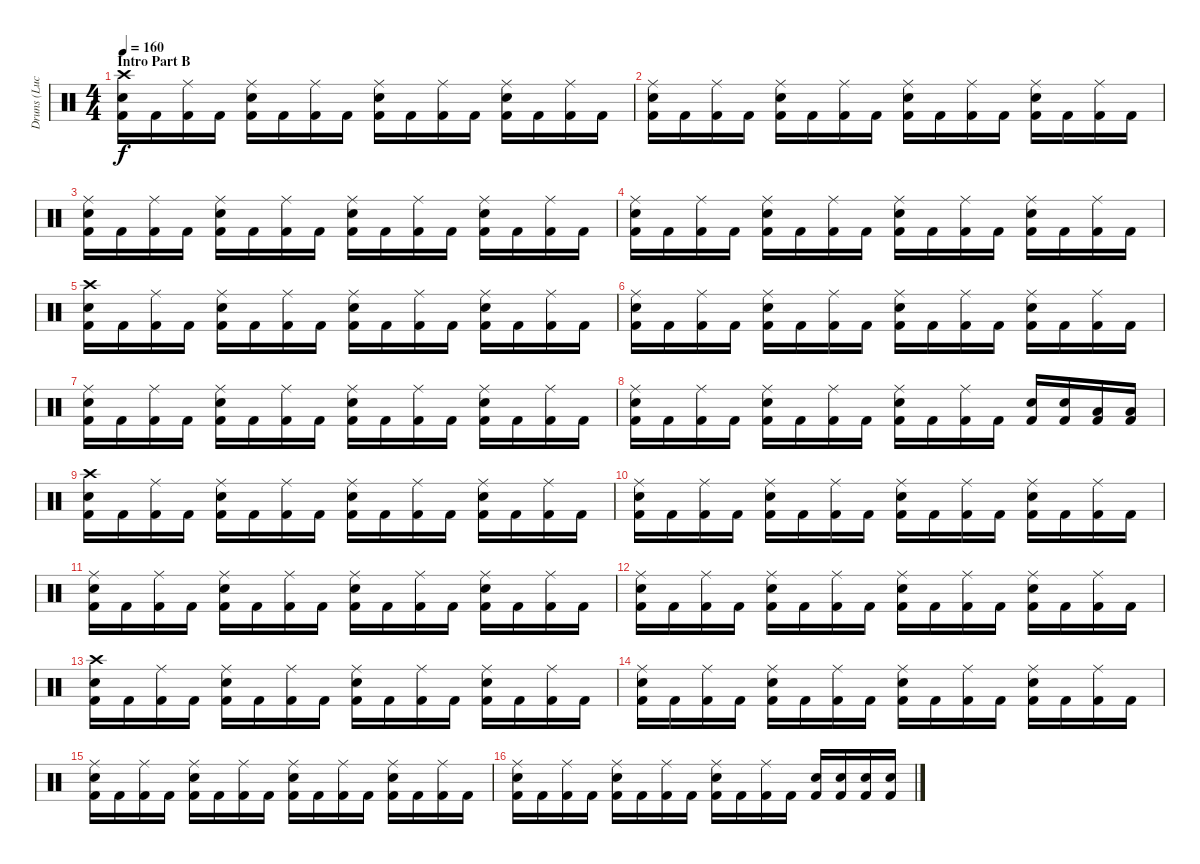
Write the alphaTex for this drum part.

\track ("Druns (Lucas Zigarti)" "Druns (Luc") {instrument percussion}
\staff {score}
\articulation defaults
\ts (4 4)
\section ("" "Intro Part B")
\tempo 160
\clef neutral
\ks c
("Electric Snare (hit)" "Crash high (hit)" "Kick (hit) 2").16{dy f} "Kick (hit) 2".16 ("Ride (middle)" "Kick (hit) 2").16 "Kick (hit) 2".16 ("Electric Snare (hit)" "Ride (middle)" "Kick (hit) 2").16 "Kick (hit) 2".16 ("Ride (middle)" "Kick (hit) 2").16 "Kick (hit) 2".16 ("Electric Snare (hit)" "Ride (middle)" "Kick (hit) 2").16 "Kick (hit) 2".16 ("Ride (middle)" "Kick (hit) 2").16 "Kick (hit) 2".16 ("Electric Snare (hit)" "Ride (middle)" "Kick (hit) 2").16 "Kick (hit) 2".16 ("Ride (middle)" "Kick (hit) 2").16 "Kick (hit) 2".16 |
("Electric Snare (hit)" "Ride (middle)" "Kick (hit) 2").16 "Kick (hit) 2".16 ("Ride (middle)" "Kick (hit) 2").16 "Kick (hit) 2".16 ("Electric Snare (hit)" "Ride (middle)" "Kick (hit) 2").16 "Kick (hit) 2".16 ("Ride (middle)" "Kick (hit) 2").16 "Kick (hit) 2".16 ("Electric Snare (hit)" "Ride (middle)" "Kick (hit) 2").16 "Kick (hit) 2".16 ("Ride (middle)" "Kick (hit) 2").16 "Kick (hit) 2".16 ("Electric Snare (hit)" "Ride (middle)" "Kick (hit) 2").16 "Kick (hit) 2".16 ("Ride (middle)" "Kick (hit) 2").16 "Kick (hit) 2".16 |
("Electric Snare (hit)" "Ride (middle)" "Kick (hit) 2").16 "Kick (hit) 2".16 ("Ride (middle)" "Kick (hit) 2").16 "Kick (hit) 2".16 ("Electric Snare (hit)" "Ride (middle)" "Kick (hit) 2").16 "Kick (hit) 2".16 ("Ride (middle)" "Kick (hit) 2").16 "Kick (hit) 2".16 ("Electric Snare (hit)" "Ride (middle)" "Kick (hit) 2").16 "Kick (hit) 2".16 ("Ride (middle)" "Kick (hit) 2").16 "Kick (hit) 2".16 ("Electric Snare (hit)" "Ride (middle)" "Kick (hit) 2").16 "Kick (hit) 2".16 ("Ride (middle)" "Kick (hit) 2").16 "Kick (hit) 2".16 |
("Electric Snare (hit)" "Ride (middle)" "Kick (hit) 2").16 "Kick (hit) 2".16 ("Ride (middle)" "Kick (hit) 2").16 "Kick (hit) 2".16 ("Electric Snare (hit)" "Ride (middle)" "Kick (hit) 2").16 "Kick (hit) 2".16 ("Ride (middle)" "Kick (hit) 2").16 "Kick (hit) 2".16 ("Electric Snare (hit)" "Ride (middle)" "Kick (hit) 2").16 "Kick (hit) 2".16 ("Ride (middle)" "Kick (hit) 2").16 "Kick (hit) 2".16 ("Electric Snare (hit)" "Ride (middle)" "Kick (hit) 2").16 "Kick (hit) 2".16 ("Ride (middle)" "Kick (hit) 2").16 "Kick (hit) 2".16 |
("Electric Snare (hit)" "Crash high (hit)" "Kick (hit) 2").16 "Kick (hit) 2".16 ("Ride (middle)" "Kick (hit) 2").16 "Kick (hit) 2".16 ("Electric Snare (hit)" "Ride (middle)" "Kick (hit) 2").16 "Kick (hit) 2".16 ("Ride (middle)" "Kick (hit) 2").16 "Kick (hit) 2".16 ("Electric Snare (hit)" "Ride (middle)" "Kick (hit) 2").16 "Kick (hit) 2".16 ("Ride (middle)" "Kick (hit) 2").16 "Kick (hit) 2".16 ("Electric Snare (hit)" "Ride (middle)" "Kick (hit) 2").16 "Kick (hit) 2".16 ("Ride (middle)" "Kick (hit) 2").16 "Kick (hit) 2".16 |
("Electric Snare (hit)" "Ride (middle)" "Kick (hit) 2").16 "Kick (hit) 2".16 ("Ride (middle)" "Kick (hit) 2").16 "Kick (hit) 2".16 ("Electric Snare (hit)" "Ride (middle)" "Kick (hit) 2").16 "Kick (hit) 2".16 ("Ride (middle)" "Kick (hit) 2").16 "Kick (hit) 2".16 ("Electric Snare (hit)" "Ride (middle)" "Kick (hit) 2").16 "Kick (hit) 2".16 ("Ride (middle)" "Kick (hit) 2").16 "Kick (hit) 2".16 ("Electric Snare (hit)" "Ride (middle)" "Kick (hit) 2").16 "Kick (hit) 2".16 ("Ride (middle)" "Kick (hit) 2").16 "Kick (hit) 2".16 |
("Electric Snare (hit)" "Ride (middle)" "Kick (hit) 2").16 "Kick (hit) 2".16 ("Ride (middle)" "Kick (hit) 2").16 "Kick (hit) 2".16 ("Electric Snare (hit)" "Ride (middle)" "Kick (hit) 2").16 "Kick (hit) 2".16 ("Ride (middle)" "Kick (hit) 2").16 "Kick (hit) 2".16 ("Electric Snare (hit)" "Ride (middle)" "Kick (hit) 2").16 "Kick (hit) 2".16 ("Ride (middle)" "Kick (hit) 2").16 "Kick (hit) 2".16 ("Electric Snare (hit)" "Ride (middle)" "Kick (hit) 2").16 "Kick (hit) 2".16 ("Ride (middle)" "Kick (hit) 2").16 "Kick (hit) 2".16 |
("Electric Snare (hit)" "Ride (middle)" "Kick (hit) 2").16 "Kick (hit) 2".16 ("Ride (middle)" "Kick (hit) 2").16 "Kick (hit) 2".16 ("Electric Snare (hit)" "Ride (middle)" "Kick (hit) 2").16 "Kick (hit) 2".16 ("Ride (middle)" "Kick (hit) 2").16 "Kick (hit) 2".16 ("Electric Snare (hit)" "Ride (middle)" "Kick (hit) 2").16 "Kick (hit) 2".16 ("Ride (middle)" "Kick (hit) 2").16 "Kick (hit) 2".16 ("Electric Snare (hit)" "Kick (hit) 2").16 ("Electric Snare (hit)" "Kick (hit) 2").16 ("Low Floor Tom (hit)" "Kick (hit) 2").16 ("Low Floor Tom (hit)" "Kick (hit) 2").16 |
("Electric Snare (hit)" "Crash high (hit)" "Kick (hit) 2").16 "Kick (hit) 2".16 ("Ride (middle)" "Kick (hit) 2").16 "Kick (hit) 2".16 ("Electric Snare (hit)" "Ride (middle)" "Kick (hit) 2").16 "Kick (hit) 2".16 ("Ride (middle)" "Kick (hit) 2").16 "Kick (hit) 2".16 ("Electric Snare (hit)" "Ride (middle)" "Kick (hit) 2").16 "Kick (hit) 2".16 ("Ride (middle)" "Kick (hit) 2").16 "Kick (hit) 2".16 ("Electric Snare (hit)" "Ride (middle)" "Kick (hit) 2").16 "Kick (hit) 2".16 ("Ride (middle)" "Kick (hit) 2").16 "Kick (hit) 2".16 |
("Electric Snare (hit)" "Ride (middle)" "Kick (hit) 2").16 "Kick (hit) 2".16 ("Ride (middle)" "Kick (hit) 2").16 "Kick (hit) 2".16 ("Electric Snare (hit)" "Ride (middle)" "Kick (hit) 2").16 "Kick (hit) 2".16 ("Ride (middle)" "Kick (hit) 2").16 "Kick (hit) 2".16 ("Electric Snare (hit)" "Ride (middle)" "Kick (hit) 2").16 "Kick (hit) 2".16 ("Ride (middle)" "Kick (hit) 2").16 "Kick (hit) 2".16 ("Electric Snare (hit)" "Ride (middle)" "Kick (hit) 2").16 "Kick (hit) 2".16 ("Ride (middle)" "Kick (hit) 2").16 "Kick (hit) 2".16 |
("Electric Snare (hit)" "Ride (middle)" "Kick (hit) 2").16 "Kick (hit) 2".16 ("Ride (middle)" "Kick (hit) 2").16 "Kick (hit) 2".16 ("Electric Snare (hit)" "Ride (middle)" "Kick (hit) 2").16 "Kick (hit) 2".16 ("Ride (middle)" "Kick (hit) 2").16 "Kick (hit) 2".16 ("Electric Snare (hit)" "Ride (middle)" "Kick (hit) 2").16 "Kick (hit) 2".16 ("Ride (middle)" "Kick (hit) 2").16 "Kick (hit) 2".16 ("Electric Snare (hit)" "Ride (middle)" "Kick (hit) 2").16 "Kick (hit) 2".16 ("Ride (middle)" "Kick (hit) 2").16 "Kick (hit) 2".16 |
("Electric Snare (hit)" "Ride (middle)" "Kick (hit) 2").16 "Kick (hit) 2".16 ("Ride (middle)" "Kick (hit) 2").16 "Kick (hit) 2".16 ("Electric Snare (hit)" "Ride (middle)" "Kick (hit) 2").16 "Kick (hit) 2".16 ("Ride (middle)" "Kick (hit) 2").16 "Kick (hit) 2".16 ("Electric Snare (hit)" "Ride (middle)" "Kick (hit) 2").16 "Kick (hit) 2".16 ("Ride (middle)" "Kick (hit) 2").16 "Kick (hit) 2".16 ("Electric Snare (hit)" "Ride (middle)" "Kick (hit) 2").16 "Kick (hit) 2".16 ("Ride (middle)" "Kick (hit) 2").16 "Kick (hit) 2".16 |
("Electric Snare (hit)" "Crash high (hit)" "Kick (hit) 2").16 "Kick (hit) 2".16 ("Ride (middle)" "Kick (hit) 2").16 "Kick (hit) 2".16 ("Electric Snare (hit)" "Ride (middle)" "Kick (hit) 2").16 "Kick (hit) 2".16 ("Ride (middle)" "Kick (hit) 2").16 "Kick (hit) 2".16 ("Electric Snare (hit)" "Ride (middle)" "Kick (hit) 2").16 "Kick (hit) 2".16 ("Ride (middle)" "Kick (hit) 2").16 "Kick (hit) 2".16 ("Electric Snare (hit)" "Ride (middle)" "Kick (hit) 2").16 "Kick (hit) 2".16 ("Ride (middle)" "Kick (hit) 2").16 "Kick (hit) 2".16 |
("Electric Snare (hit)" "Ride (middle)" "Kick (hit) 2").16 "Kick (hit) 2".16 ("Ride (middle)" "Kick (hit) 2").16 "Kick (hit) 2".16 ("Electric Snare (hit)" "Ride (middle)" "Kick (hit) 2").16 "Kick (hit) 2".16 ("Ride (middle)" "Kick (hit) 2").16 "Kick (hit) 2".16 ("Electric Snare (hit)" "Ride (middle)" "Kick (hit) 2").16 "Kick (hit) 2".16 ("Ride (middle)" "Kick (hit) 2").16 "Kick (hit) 2".16 ("Electric Snare (hit)" "Ride (middle)" "Kick (hit) 2").16 "Kick (hit) 2".16 ("Ride (middle)" "Kick (hit) 2").16 "Kick (hit) 2".16 |
("Electric Snare (hit)" "Ride (middle)" "Kick (hit) 2").16 "Kick (hit) 2".16 ("Ride (middle)" "Kick (hit) 2").16 "Kick (hit) 2".16 ("Electric Snare (hit)" "Ride (middle)" "Kick (hit) 2").16 "Kick (hit) 2".16 ("Ride (middle)" "Kick (hit) 2").16 "Kick (hit) 2".16 ("Electric Snare (hit)" "Ride (middle)" "Kick (hit) 2").16 "Kick (hit) 2".16 ("Ride (middle)" "Kick (hit) 2").16 "Kick (hit) 2".16 ("Electric Snare (hit)" "Ride (middle)" "Kick (hit) 2").16 "Kick (hit) 2".16 ("Ride (middle)" "Kick (hit) 2").16 "Kick (hit) 2".16 |
("Electric Snare (hit)" "Ride (middle)" "Kick (hit) 2").16 "Kick (hit) 2".16 ("Ride (middle)" "Kick (hit) 2").16 "Kick (hit) 2".16 ("Electric Snare (hit)" "Ride (middle)" "Kick (hit) 2").16 "Kick (hit) 2".16 ("Ride (middle)" "Kick (hit) 2").16 "Kick (hit) 2".16 ("Electric Snare (hit)" "Ride (middle)" "Kick (hit) 2").16 "Kick (hit) 2".16 ("Ride (middle)" "Kick (hit) 2").16 "Kick (hit) 2".16 ("Electric Snare (hit)" "Kick (hit) 2").16 ("Electric Snare (hit)" "Kick (hit) 2").16 ("Electric Snare (hit)" "Kick (hit) 2").16 ("Electric Snare (hit)" "Kick (hit) 2").16
